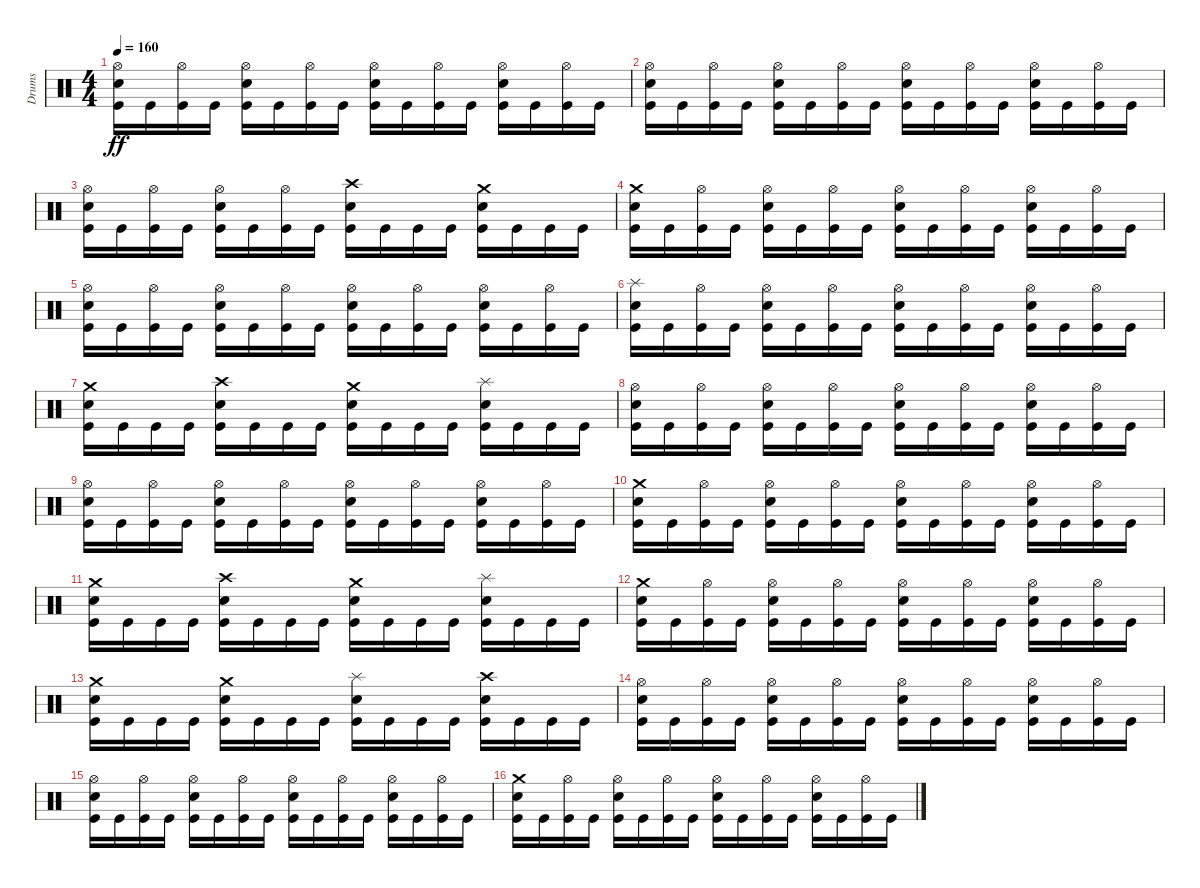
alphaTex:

\track ("Drums" "Drums") {instrument percussion bank 127}
\staff {score}
\articulation defaults
\ts (4 4)
\tempo 160
\clef neutral
\ks c
("Hi-Hat (open)" "Snare (hit) 2" "Kick (hit)").16{dy ff} "Kick (hit)".16 ("Hi-Hat (open)" "Kick (hit)").16 "Kick (hit)".16 ("Hi-Hat (open)" "Snare (hit) 2" "Kick (hit)").16 "Kick (hit)".16 ("Hi-Hat (open)" "Kick (hit)").16 "Kick (hit)".16 ("Hi-Hat (open)" "Snare (hit) 2" "Kick (hit)").16 "Kick (hit)".16 ("Hi-Hat (open)" "Kick (hit)").16 "Kick (hit)".16 ("Hi-Hat (open)" "Snare (hit) 2" "Kick (hit)").16 "Kick (hit)".16 ("Hi-Hat (open)" "Kick (hit)").16 "Kick (hit)".16 |
("Hi-Hat (open)" "Snare (hit) 2" "Kick (hit)").16 "Kick (hit)".16 ("Hi-Hat (open)" "Kick (hit)").16 "Kick (hit)".16 ("Hi-Hat (open)" "Snare (hit) 2" "Kick (hit)").16 "Kick (hit)".16 ("Hi-Hat (open)" "Kick (hit)").16 "Kick (hit)".16 ("Hi-Hat (open)" "Snare (hit) 2" "Kick (hit)").16 "Kick (hit)".16 ("Hi-Hat (open)" "Kick (hit)").16 "Kick (hit)".16 ("Hi-Hat (open)" "Snare (hit) 2" "Kick (hit)").16 "Kick (hit)".16 ("Hi-Hat (open)" "Kick (hit)").16 "Kick (hit)".16 |
("Hi-Hat (open)" "Snare (hit) 2" "Kick (hit)").16 "Kick (hit)".16 ("Hi-Hat (open)" "Kick (hit)").16 "Kick (hit)".16 ("Hi-Hat (open)" "Snare (hit) 2" "Kick (hit)").16 "Kick (hit)".16 ("Hi-Hat (open)" "Kick (hit)").16 "Kick (hit)".16 ("Crash high (hit)" "Snare (hit) 2" "Kick (hit)").16 "Kick (hit)".16 "Kick (hit)".16 "Kick (hit)".16 ("Crash medium (hit)" "Snare (hit) 2" "Kick (hit)").16 "Kick (hit)".16 "Kick (hit)".16 "Kick (hit)".16 |
("Crash medium (hit)" "Snare (hit) 2" "Kick (hit)").16 "Kick (hit)".16 ("Hi-Hat (open)" "Kick (hit)").16 "Kick (hit)".16 ("Hi-Hat (open)" "Snare (hit) 2" "Kick (hit)").16 "Kick (hit)".16 ("Hi-Hat (open)" "Kick (hit)").16 "Kick (hit)".16 ("Hi-Hat (open)" "Snare (hit) 2" "Kick (hit)").16 "Kick (hit)".16 ("Hi-Hat (open)" "Kick (hit)").16 "Kick (hit)".16 ("Hi-Hat (open)" "Snare (hit) 2" "Kick (hit)").16 "Kick (hit)".16 ("Hi-Hat (open)" "Kick (hit)").16 "Kick (hit)".16 |
("Hi-Hat (open)" "Snare (hit) 2" "Kick (hit)").16 "Kick (hit)".16 ("Hi-Hat (open)" "Kick (hit)").16 "Kick (hit)".16 ("Hi-Hat (open)" "Snare (hit) 2" "Kick (hit)").16 "Kick (hit)".16 ("Hi-Hat (open)" "Kick (hit)").16 "Kick (hit)".16 ("Hi-Hat (open)" "Snare (hit) 2" "Kick (hit)").16 "Kick (hit)".16 ("Hi-Hat (open)" "Kick (hit)").16 "Kick (hit)".16 ("Hi-Hat (open)" "Snare (hit) 2" "Kick (hit)").16 "Kick (hit)".16 ("Hi-Hat (open)" "Kick (hit)").16 "Kick (hit)".16 |
("Splash (hit)" "Snare (hit) 2" "Kick (hit)").16 "Kick (hit)".16 ("Hi-Hat (open)" "Kick (hit)").16 "Kick (hit)".16 ("Hi-Hat (open)" "Snare (hit) 2" "Kick (hit)").16 "Kick (hit)".16 ("Hi-Hat (open)" "Kick (hit)").16 "Kick (hit)".16 ("Hi-Hat (open)" "Snare (hit) 2" "Kick (hit)").16 "Kick (hit)".16 ("Hi-Hat (open)" "Kick (hit)").16 "Kick (hit)".16 ("Hi-Hat (open)" "Snare (hit) 2" "Kick (hit)").16 "Kick (hit)".16 ("Hi-Hat (open)" "Kick (hit)").16 "Kick (hit)".16 |
("Crash medium (hit)" "Snare (hit) 2" "Kick (hit)").16 "Kick (hit)".16 "Kick (hit)".16 "Kick (hit)".16 ("Crash high (hit)" "Snare (hit) 2" "Kick (hit)").16 "Kick (hit)".16 "Kick (hit)".16 "Kick (hit)".16 ("Crash medium (hit)" "Snare (hit) 2" "Kick (hit)").16 "Kick (hit)".16 "Kick (hit)".16 "Kick (hit)".16 ("Splash (hit)" "Snare (hit) 2" "Kick (hit)").16 "Kick (hit)".16 "Kick (hit)".16 "Kick (hit)".16 |
("Hi-Hat (open)" "Snare (hit) 2" "Kick (hit)").16 "Kick (hit)".16 ("Hi-Hat (open)" "Kick (hit)").16 "Kick (hit)".16 ("Hi-Hat (open)" "Snare (hit) 2" "Kick (hit)").16 "Kick (hit)".16 ("Hi-Hat (open)" "Kick (hit)").16 "Kick (hit)".16 ("Hi-Hat (open)" "Snare (hit) 2" "Kick (hit)").16 "Kick (hit)".16 ("Hi-Hat (open)" "Kick (hit)").16 "Kick (hit)".16 ("Hi-Hat (open)" "Snare (hit) 2" "Kick (hit)").16 "Kick (hit)".16 ("Hi-Hat (open)" "Kick (hit)").16 "Kick (hit)".16 |
("Hi-Hat (open)" "Snare (hit) 2" "Kick (hit)").16 "Kick (hit)".16 ("Hi-Hat (open)" "Kick (hit)").16 "Kick (hit)".16 ("Hi-Hat (open)" "Snare (hit) 2" "Kick (hit)").16 "Kick (hit)".16 ("Hi-Hat (open)" "Kick (hit)").16 "Kick (hit)".16 ("Hi-Hat (open)" "Snare (hit) 2" "Kick (hit)").16 "Kick (hit)".16 ("Hi-Hat (open)" "Kick (hit)").16 "Kick (hit)".16 ("Hi-Hat (open)" "Snare (hit) 2" "Kick (hit)").16 "Kick (hit)".16 ("Hi-Hat (open)" "Kick (hit)").16 "Kick (hit)".16 |
("Crash medium (hit)" "Snare (hit) 2" "Kick (hit)").16 "Kick (hit)".16 ("Hi-Hat (open)" "Kick (hit)").16 "Kick (hit)".16 ("Hi-Hat (open)" "Snare (hit) 2" "Kick (hit)").16 "Kick (hit)".16 ("Hi-Hat (open)" "Kick (hit)").16 "Kick (hit)".16 ("Hi-Hat (open)" "Snare (hit) 2" "Kick (hit)").16 "Kick (hit)".16 ("Hi-Hat (open)" "Kick (hit)").16 "Kick (hit)".16 ("Hi-Hat (open)" "Snare (hit) 2" "Kick (hit)").16 "Kick (hit)".16 ("Hi-Hat (open)" "Kick (hit)").16 "Kick (hit)".16 |
("Crash medium (hit)" "Snare (hit) 2" "Kick (hit)").16 "Kick (hit)".16 "Kick (hit)".16 "Kick (hit)".16 ("Crash high (hit)" "Snare (hit) 2" "Kick (hit)").16 "Kick (hit)".16 "Kick (hit)".16 "Kick (hit)".16 ("Crash medium (hit)" "Snare (hit) 2" "Kick (hit)").16 "Kick (hit)".16 "Kick (hit)".16 "Kick (hit)".16 ("Splash (hit)" "Snare (hit) 2" "Kick (hit)").16 "Kick (hit)".16 "Kick (hit)".16 "Kick (hit)".16 |
("Crash medium (hit)" "Snare (hit) 2" "Kick (hit)").16 "Kick (hit)".16 ("Hi-Hat (open)" "Kick (hit)").16 "Kick (hit)".16 ("Hi-Hat (open)" "Snare (hit) 2" "Kick (hit)").16 "Kick (hit)".16 ("Hi-Hat (open)" "Kick (hit)").16 "Kick (hit)".16 ("Hi-Hat (open)" "Snare (hit) 2" "Kick (hit)").16 "Kick (hit)".16 ("Hi-Hat (open)" "Kick (hit)").16 "Kick (hit)".16 ("Hi-Hat (open)" "Snare (hit) 2" "Kick (hit)").16 "Kick (hit)".16 ("Hi-Hat (open)" "Kick (hit)").16 "Kick (hit)".16 |
("Crash medium (hit)" "Snare (hit) 2" "Kick (hit)").16 "Kick (hit)".16 "Kick (hit)".16 "Kick (hit)".16 ("Crash medium (hit)" "Snare (hit) 2" "Kick (hit)").16 "Kick (hit)".16 "Kick (hit)".16 "Kick (hit)".16 ("Splash (hit)" "Snare (hit) 2" "Kick (hit)").16 "Kick (hit)".16 "Kick (hit)".16 "Kick (hit)".16 ("Crash high (hit)" "Snare (hit) 2" "Kick (hit)").16 "Kick (hit)".16 "Kick (hit)".16 "Kick (hit)".16 |
("Hi-Hat (open)" "Snare (hit) 2" "Kick (hit)").16 "Kick (hit)".16 ("Hi-Hat (open)" "Kick (hit)").16 "Kick (hit)".16 ("Hi-Hat (open)" "Snare (hit) 2" "Kick (hit)").16 "Kick (hit)".16 ("Hi-Hat (open)" "Kick (hit)").16 "Kick (hit)".16 ("Hi-Hat (open)" "Snare (hit) 2" "Kick (hit)").16 "Kick (hit)".16 ("Hi-Hat (open)" "Kick (hit)").16 "Kick (hit)".16 ("Hi-Hat (open)" "Snare (hit) 2" "Kick (hit)").16 "Kick (hit)".16 ("Hi-Hat (open)" "Kick (hit)").16 "Kick (hit)".16 |
("Hi-Hat (open)" "Snare (hit) 2" "Kick (hit)").16 "Kick (hit)".16 ("Hi-Hat (open)" "Kick (hit)").16 "Kick (hit)".16 ("Hi-Hat (open)" "Snare (hit) 2" "Kick (hit)").16 "Kick (hit)".16 ("Hi-Hat (open)" "Kick (hit)").16 "Kick (hit)".16 ("Hi-Hat (open)" "Snare (hit) 2" "Kick (hit)").16 "Kick (hit)".16 ("Hi-Hat (open)" "Kick (hit)").16 "Kick (hit)".16 ("Hi-Hat (open)" "Snare (hit) 2" "Kick (hit)").16 "Kick (hit)".16 ("Hi-Hat (open)" "Kick (hit)").16 "Kick (hit)".16 |
("Crash medium (hit)" "Snare (hit) 2" "Kick (hit)").16 "Kick (hit)".16 ("Hi-Hat (open)" "Kick (hit)").16 "Kick (hit)".16 ("Hi-Hat (open)" "Snare (hit) 2" "Kick (hit)").16 "Kick (hit)".16 ("Hi-Hat (open)" "Kick (hit)").16 "Kick (hit)".16 ("Hi-Hat (open)" "Snare (hit) 2" "Kick (hit)").16 "Kick (hit)".16 ("Hi-Hat (open)" "Kick (hit)").16 "Kick (hit)".16 ("Hi-Hat (open)" "Snare (hit) 2" "Kick (hit)").16 "Kick (hit)".16 ("Hi-Hat (open)" "Kick (hit)").16 "Kick (hit)".16
